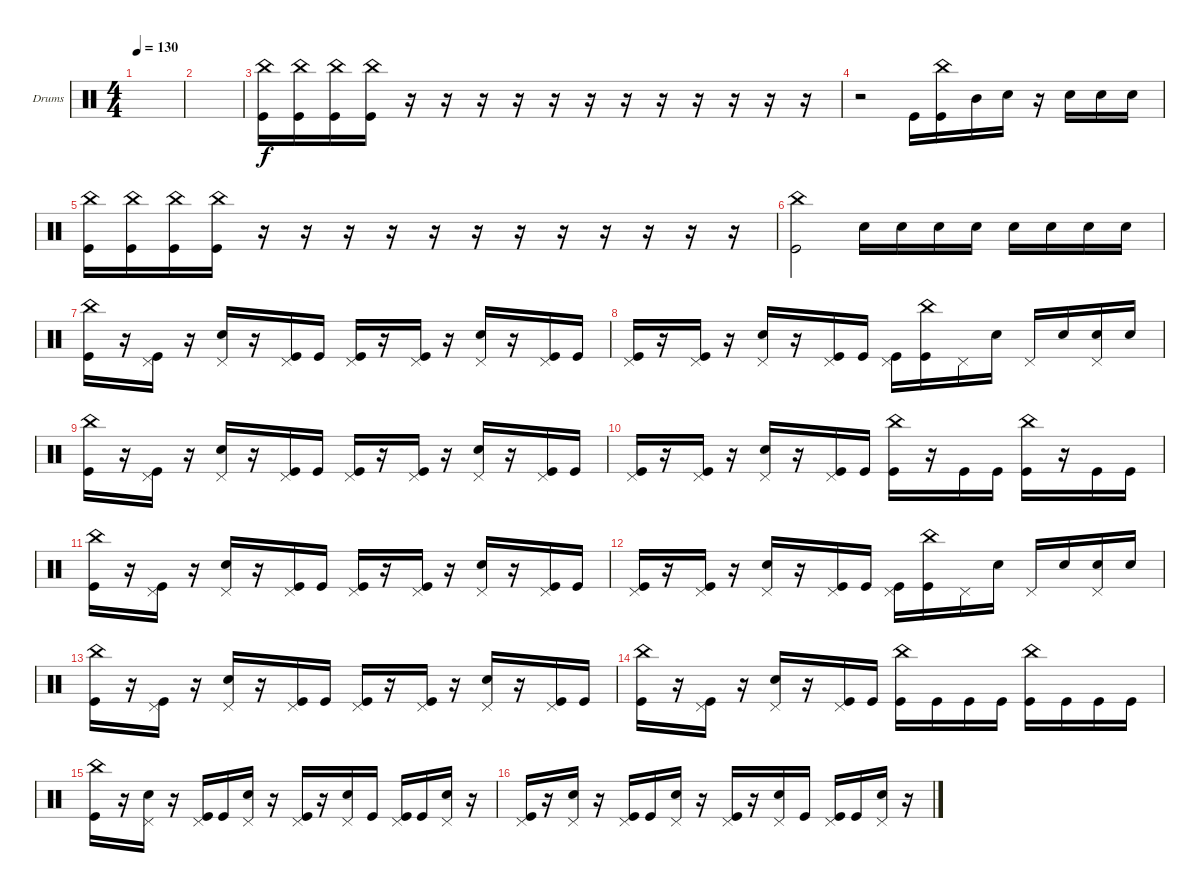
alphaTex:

\defaultSystemsLayout 4
\bracketExtendMode groupsimilarinstruments
\firstSystemTrackNameOrientation horizontal
\otherSystemsTrackNameOrientation horizontal
\track ("Drumkit" "Drums") {instrument percussion}
\staff {score}
\articulation defaults
\ts (4 4)
\tempo 130
\clef neutral
\ks c
|
|
("Kick (hit)" "China (hit)").16 ("Kick (hit)" "China (hit)").16 ("Kick (hit)" "China (hit)").16 ("Kick (hit)" "China (hit)").16 r.16 r.16 r.16 r.16 r.16 r.16 r.16 r.16 r.16 r.16 r.16 r.16 |
r.2 "Kick (hit)".16 ("Kick (hit)" "China (hit)").16 "Mid Tom (hit)".16 "Snare (hit) 2".16 r.16 "Snare (hit) 2".16 "Snare (hit) 2".16 "Snare (hit) 2".16 |
("Kick (hit)" "China (hit)").16 ("Kick (hit)" "China (hit)").16 ("Kick (hit)" "China (hit)").16 ("Kick (hit)" "China (hit)").16 r.16 r.16 r.16 r.16 r.16 r.16 r.16 r.16 r.16 r.16 r.16 r.16 |
("Kick (hit)" "China (hit)").2 "Snare (hit) 2".16 "Snare (hit) 2".16 "Snare (hit) 2".16 "Snare (hit) 2".16 "Snare (hit) 2".16 "Snare (hit) 2".16 "Snare (hit) 2".16 "Snare (hit) 2".16 |
("Kick (hit)" "China (hit)").16 r.16 ("Kick (hit)" "Pedal Hi-Hat (hit)").16 r.16 ("Snare (hit) 2" "Pedal Hi-Hat (hit)").16 r.16 ("Kick (hit)" "Pedal Hi-Hat (hit)").16 "Kick (hit)".16 ("Kick (hit)" "Pedal Hi-Hat (hit)").16 r.16 ("Kick (hit)" "Pedal Hi-Hat (hit)").16 r.16 ("Snare (hit) 2" "Pedal Hi-Hat (hit)").16 r.16 ("Kick (hit)" "Pedal Hi-Hat (hit)").16 "Kick (hit)".16 |
("Kick (hit)" "Pedal Hi-Hat (hit)").16 r.16 ("Kick (hit)" "Pedal Hi-Hat (hit)").16 r.16 ("Snare (hit) 2" "Pedal Hi-Hat (hit)").16 r.16 ("Kick (hit)" "Pedal Hi-Hat (hit)").16 "Kick (hit)".16 ("Kick (hit)" "Pedal Hi-Hat (hit)").16 ("Kick (hit)" "China (hit)").16 "Pedal Hi-Hat (hit)".16 "Snare (hit) 2".16 "Pedal Hi-Hat (hit)".16 "Snare (hit) 2".16 ("Snare (hit) 2" "Pedal Hi-Hat (hit)").16 "Snare (hit) 2".16 |
("Kick (hit)" "China (hit)").16 r.16 ("Kick (hit)" "Pedal Hi-Hat (hit)").16 r.16 ("Snare (hit) 2" "Pedal Hi-Hat (hit)").16 r.16 ("Kick (hit)" "Pedal Hi-Hat (hit)").16 "Kick (hit)".16 ("Kick (hit)" "Pedal Hi-Hat (hit)").16 r.16 ("Kick (hit)" "Pedal Hi-Hat (hit)").16 r.16 ("Snare (hit) 2" "Pedal Hi-Hat (hit)").16 r.16 ("Kick (hit)" "Pedal Hi-Hat (hit)").16 "Kick (hit)".16 |
("Kick (hit)" "Pedal Hi-Hat (hit)").16 r.16 ("Kick (hit)" "Pedal Hi-Hat (hit)").16 r.16 ("Snare (hit) 2" "Pedal Hi-Hat (hit)").16 r.16 ("Kick (hit)" "Pedal Hi-Hat (hit)").16 "Kick (hit)".16 ("Kick (hit)" "China (hit)").16 r.16 "Kick (hit)".16 "Kick (hit)".16 ("Kick (hit)" "China (hit)").16 r.16 "Kick (hit)".16 "Kick (hit)".16 |
("Kick (hit)" "China (hit)").16 r.16 ("Kick (hit)" "Pedal Hi-Hat (hit)").16 r.16 ("Snare (hit) 2" "Pedal Hi-Hat (hit)").16 r.16 ("Kick (hit)" "Pedal Hi-Hat (hit)").16 "Kick (hit)".16 ("Kick (hit)" "Pedal Hi-Hat (hit)").16 r.16 ("Kick (hit)" "Pedal Hi-Hat (hit)").16 r.16 ("Snare (hit) 2" "Pedal Hi-Hat (hit)").16 r.16 ("Kick (hit)" "Pedal Hi-Hat (hit)").16 "Kick (hit)".16 |
("Kick (hit)" "Pedal Hi-Hat (hit)").16 r.16 ("Kick (hit)" "Pedal Hi-Hat (hit)").16 r.16 ("Snare (hit) 2" "Pedal Hi-Hat (hit)").16 r.16 ("Kick (hit)" "Pedal Hi-Hat (hit)").16 "Kick (hit)".16 ("Kick (hit)" "Pedal Hi-Hat (hit)").16 ("Kick (hit)" "China (hit)").16 "Pedal Hi-Hat (hit)".16 "Snare (hit) 2".16 "Pedal Hi-Hat (hit)".16 "Snare (hit) 2".16 ("Snare (hit) 2" "Pedal Hi-Hat (hit)").16 "Snare (hit) 2".16 |
("Kick (hit)" "China (hit)").16 r.16 ("Kick (hit)" "Pedal Hi-Hat (hit)").16 r.16 ("Snare (hit) 2" "Pedal Hi-Hat (hit)").16 r.16 ("Kick (hit)" "Pedal Hi-Hat (hit)").16 "Kick (hit)".16 ("Kick (hit)" "Pedal Hi-Hat (hit)").16 r.16 ("Kick (hit)" "Pedal Hi-Hat (hit)").16 r.16 ("Snare (hit) 2" "Pedal Hi-Hat (hit)").16 r.16 ("Kick (hit)" "Pedal Hi-Hat (hit)").16 "Kick (hit)".16 |
("Kick (hit)" "China (hit)").16 r.16 ("Kick (hit)" "Pedal Hi-Hat (hit)").16 r.16 ("Snare (hit) 2" "Pedal Hi-Hat (hit)").16 r.16 ("Kick (hit)" "Pedal Hi-Hat (hit)").16 "Kick (hit)".16 ("Kick (hit)" "China (hit)").16 "Kick (hit)".16 "Kick (hit)".16 "Kick (hit)".16 ("China (hit)" "Kick (hit)").16 "Kick (hit)".16 "Kick (hit)".16 "Kick (hit)".16 |
("Kick (hit)" "China (hit)").16 r.16 ("Snare (hit) 2" "Pedal Hi-Hat (hit)").16 r.16 ("Kick (hit)" "Pedal Hi-Hat (hit)").16 "Kick (hit)".16 ("Snare (hit) 2" "Pedal Hi-Hat (hit)").16 r.16 ("Kick (hit)" "Pedal Hi-Hat (hit)").16 r.16 ("Snare (hit) 2" "Pedal Hi-Hat (hit)").16 "Kick (hit)".16 ("Kick (hit)" "Pedal Hi-Hat (hit)").16 "Kick (hit)".16 ("Snare (hit) 2" "Pedal Hi-Hat (hit)").16 r.16 |
("Kick (hit)" "Pedal Hi-Hat (hit)").16 r.16 ("Snare (hit) 2" "Pedal Hi-Hat (hit)").16 r.16 ("Kick (hit)" "Pedal Hi-Hat (hit)").16 "Kick (hit)".16 ("Snare (hit) 2" "Pedal Hi-Hat (hit)").16 r.16 ("Kick (hit)" "Pedal Hi-Hat (hit)").16 r.16 ("Snare (hit) 2" "Pedal Hi-Hat (hit)").16 "Kick (hit)".16 ("Kick (hit)" "Pedal Hi-Hat (hit)").16 "Kick (hit)".16 ("Snare (hit) 2" "Pedal Hi-Hat (hit)").16 r.16
